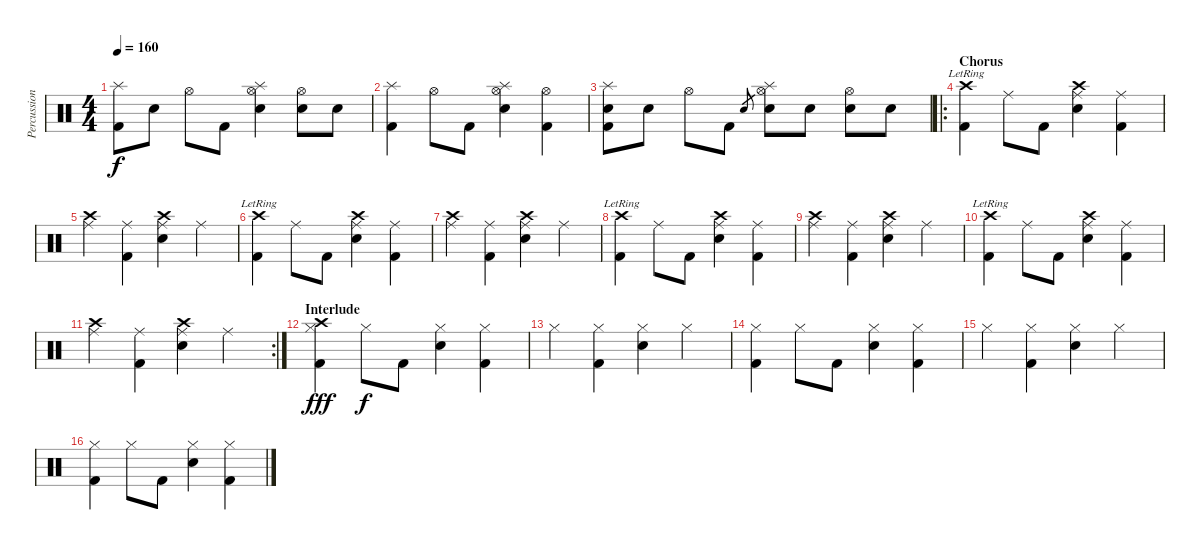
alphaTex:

\track ("Percussion" "Percussion") {instrument percussion}
\staff {score}
\articulation defaults
\ts (4 4)
\tempo 160
\clef neutral
\ks c
("Splash (hit)" "Kick (hit) 2").8{dy f} "Electric Snare (hit)".8 "Hi-Hat (open)".8 "Kick (hit) 2".8 ("Splash (hit)" "Hi-Hat (open)" "Electric Snare (hit)").4 ("Hi-Hat (open)" "Electric Snare (hit)").8 "Electric Snare (hit)".8 |
("Splash (hit)" "Kick (hit) 2").4 "Hi-Hat (open)".8 "Kick (hit) 2".8 ("Splash (hit)" "Hi-Hat (open)" "Electric Snare (hit)").4 ("Hi-Hat (open)" "Kick (hit) 2").4 |
("Splash (hit)" "Electric Snare (hit)" "Kick (hit) 2").8 "Electric Snare (hit)".8 "Hi-Hat (open)".8 "Kick (hit) 2".8 "Electric Snare (hit)".8{gr} ("Splash (hit)" "Hi-Hat (open)" "Electric Snare (hit)").8 "Electric Snare (hit)".8 ("Hi-Hat (open)" "Electric Snare (hit)").8 "Electric Snare (hit)".8 |
\ro
\section ("" "Chorus")
("Crash high (hit)"{lr} "Kick (hit) 2").4 "Ride (middle)".8 "Kick (hit) 2".8 ("Crash high (hit)" "Ride (middle)" "Electric Snare (hit)").4 ("Ride (middle)" "Kick (hit) 2").4 |
("Crash high (hit)" "Ride (middle)").4 ("Ride (middle)" "Kick (hit) 2").4 ("Crash high (hit)" "Ride (middle)" "Electric Snare (hit)").4 "Ride (middle)".4 |
("Crash high (hit)"{lr} "Kick (hit) 2").4 "Ride (middle)".8 "Kick (hit) 2".8 ("Crash high (hit)" "Ride (middle)" "Electric Snare (hit)").4 ("Ride (middle)" "Kick (hit) 2").4 |
("Crash high (hit)" "Ride (middle)").4 ("Ride (middle)" "Kick (hit) 2").4 ("Crash high (hit)" "Ride (middle)" "Electric Snare (hit)").4 "Ride (middle)".4 |
("Crash high (hit)"{lr} "Kick (hit) 2").4 "Ride (middle)".8 "Kick (hit) 2".8 ("Crash high (hit)" "Ride (middle)" "Electric Snare (hit)").4 ("Ride (middle)" "Kick (hit) 2").4 |
("Crash high (hit)" "Ride (middle)").4 ("Ride (middle)" "Kick (hit) 2").4 ("Crash high (hit)" "Ride (middle)" "Electric Snare (hit)").4 "Ride (middle)".4 |
("Crash high (hit)"{lr} "Kick (hit) 2").4 "Ride (middle)".8 "Kick (hit) 2".8 ("Crash high (hit)" "Ride (middle)" "Electric Snare (hit)").4 ("Ride (middle)" "Kick (hit) 2").4 |
\rc 2
("Crash high (hit)" "Ride (middle)").4 ("Ride (middle)" "Kick (hit) 2").4 ("Crash high (hit)" "Ride (middle)" "Electric Snare (hit)").4 "Ride (middle)".4 |
\section ("" "Interlude")
("Crash high (hit)" "Hi-Hat (closed)" "Kick (hit) 2").4{dy fff} "Hi-Hat (closed)".8{dy f} "Kick (hit) 2".8 ("Hi-Hat (closed)" "Electric Snare (hit)").4 ("Hi-Hat (closed)" "Kick (hit) 2").4 |
"Hi-Hat (closed)".4 ("Hi-Hat (closed)" "Kick (hit) 2").4 ("Hi-Hat (closed)" "Electric Snare (hit)").4 "Hi-Hat (closed)".4 |
("Hi-Hat (closed)" "Kick (hit) 2").4 "Hi-Hat (closed)".8 "Kick (hit) 2".8 ("Hi-Hat (closed)" "Electric Snare (hit)").4 ("Hi-Hat (closed)" "Kick (hit) 2").4 |
"Hi-Hat (closed)".4 ("Hi-Hat (closed)" "Kick (hit) 2").4 ("Hi-Hat (closed)" "Electric Snare (hit)").4 "Hi-Hat (closed)".4 |
("Hi-Hat (closed)" "Kick (hit) 2").4 "Hi-Hat (closed)".8 "Kick (hit) 2".8 ("Hi-Hat (closed)" "Electric Snare (hit)").4 ("Hi-Hat (closed)" "Kick (hit) 2").4
